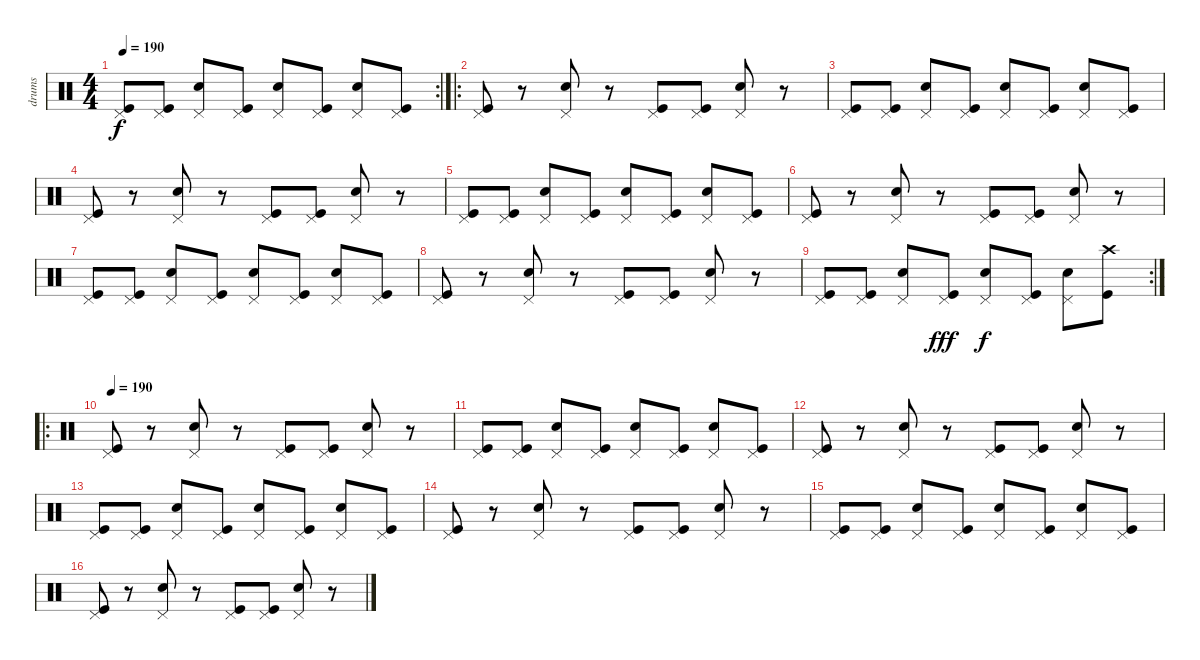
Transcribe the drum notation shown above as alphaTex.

\track ("drums" "drums") {instrument percussion}
\staff {score}
\articulation defaults
\rc 2
\ts (4 4)
\tempo 190
\clef neutral
\ks c
("Pedal Hi-Hat (hit)" "Kick (hit)").8{dy f} ("Pedal Hi-Hat (hit)" "Kick (hit)").8 ("Pedal Hi-Hat (hit)" "Snare (hit) 2").8 ("Pedal Hi-Hat (hit)" "Kick (hit)").8 ("Pedal Hi-Hat (hit)" "Snare (hit) 2").8 ("Pedal Hi-Hat (hit)" "Kick (hit)").8 ("Pedal Hi-Hat (hit)" "Snare (hit) 2").8 ("Pedal Hi-Hat (hit)" "Kick (hit)").8 |
\ro
("Pedal Hi-Hat (hit)" "Kick (hit)").8 r.8 ("Pedal Hi-Hat (hit)" "Snare (hit) 2").8 r.8 ("Pedal Hi-Hat (hit)" "Kick (hit)").8 ("Pedal Hi-Hat (hit)" "Kick (hit)").8 ("Pedal Hi-Hat (hit)" "Snare (hit) 2").8 r.8 |
("Pedal Hi-Hat (hit)" "Kick (hit)").8 ("Pedal Hi-Hat (hit)" "Kick (hit)").8 ("Pedal Hi-Hat (hit)" "Snare (hit) 2").8 ("Pedal Hi-Hat (hit)" "Kick (hit)").8 ("Pedal Hi-Hat (hit)" "Snare (hit) 2").8 ("Pedal Hi-Hat (hit)" "Kick (hit)").8 ("Pedal Hi-Hat (hit)" "Snare (hit) 2").8 ("Pedal Hi-Hat (hit)" "Kick (hit)").8 |
("Pedal Hi-Hat (hit)" "Kick (hit)").8 r.8 ("Pedal Hi-Hat (hit)" "Snare (hit) 2").8 r.8 ("Pedal Hi-Hat (hit)" "Kick (hit)").8 ("Pedal Hi-Hat (hit)" "Kick (hit)").8 ("Pedal Hi-Hat (hit)" "Snare (hit) 2").8 r.8 |
("Pedal Hi-Hat (hit)" "Kick (hit)").8 ("Pedal Hi-Hat (hit)" "Kick (hit)").8 ("Pedal Hi-Hat (hit)" "Snare (hit) 2").8 ("Pedal Hi-Hat (hit)" "Kick (hit)").8 ("Pedal Hi-Hat (hit)" "Snare (hit) 2").8 ("Pedal Hi-Hat (hit)" "Kick (hit)").8 ("Pedal Hi-Hat (hit)" "Snare (hit) 2").8 ("Pedal Hi-Hat (hit)" "Kick (hit)").8 |
("Pedal Hi-Hat (hit)" "Kick (hit)").8 r.8 ("Pedal Hi-Hat (hit)" "Snare (hit) 2").8 r.8 ("Pedal Hi-Hat (hit)" "Kick (hit)").8 ("Pedal Hi-Hat (hit)" "Kick (hit)").8 ("Pedal Hi-Hat (hit)" "Snare (hit) 2").8 r.8 |
("Pedal Hi-Hat (hit)" "Kick (hit)").8 ("Pedal Hi-Hat (hit)" "Kick (hit)").8 ("Pedal Hi-Hat (hit)" "Snare (hit) 2").8 ("Pedal Hi-Hat (hit)" "Kick (hit)").8 ("Pedal Hi-Hat (hit)" "Snare (hit) 2").8 ("Pedal Hi-Hat (hit)" "Kick (hit)").8 ("Pedal Hi-Hat (hit)" "Snare (hit) 2").8 ("Pedal Hi-Hat (hit)" "Kick (hit)").8 |
("Pedal Hi-Hat (hit)" "Kick (hit)").8 r.8 ("Pedal Hi-Hat (hit)" "Snare (hit) 2").8 r.8 ("Pedal Hi-Hat (hit)" "Kick (hit)").8 ("Pedal Hi-Hat (hit)" "Kick (hit)").8 ("Pedal Hi-Hat (hit)" "Snare (hit) 2").8 r.8 |
\rc 2
("Pedal Hi-Hat (hit)" "Kick (hit)").8 ("Pedal Hi-Hat (hit)" "Kick (hit)").8 ("Pedal Hi-Hat (hit)" "Snare (hit) 2").8 ("Pedal Hi-Hat (hit)" "Kick (hit)").8{dy fff} ("Pedal Hi-Hat (hit)" "Snare (hit) 2").8{dy f} ("Pedal Hi-Hat (hit)" "Kick (hit)").8 ("Pedal Hi-Hat (hit)" "Snare (hit) 2").8 ("Crash high (hit)" "Kick (hit)").8 |
\ro
\tempo 190
("Pedal Hi-Hat (hit)" "Kick (hit)").8 r.8 ("Pedal Hi-Hat (hit)" "Snare (hit) 2").8 r.8 ("Pedal Hi-Hat (hit)" "Kick (hit)").8 ("Pedal Hi-Hat (hit)" "Kick (hit)").8 ("Pedal Hi-Hat (hit)" "Snare (hit) 2").8 r.8 |
("Pedal Hi-Hat (hit)" "Kick (hit)").8 ("Pedal Hi-Hat (hit)" "Kick (hit)").8 ("Pedal Hi-Hat (hit)" "Snare (hit) 2").8 ("Pedal Hi-Hat (hit)" "Kick (hit)").8 ("Pedal Hi-Hat (hit)" "Snare (hit) 2").8 ("Pedal Hi-Hat (hit)" "Kick (hit)").8 ("Pedal Hi-Hat (hit)" "Snare (hit) 2").8 ("Pedal Hi-Hat (hit)" "Kick (hit)").8 |
("Pedal Hi-Hat (hit)" "Kick (hit)").8 r.8 ("Pedal Hi-Hat (hit)" "Snare (hit) 2").8 r.8 ("Pedal Hi-Hat (hit)" "Kick (hit)").8 ("Pedal Hi-Hat (hit)" "Kick (hit)").8 ("Pedal Hi-Hat (hit)" "Snare (hit) 2").8 r.8 |
("Pedal Hi-Hat (hit)" "Kick (hit)").8 ("Pedal Hi-Hat (hit)" "Kick (hit)").8 ("Pedal Hi-Hat (hit)" "Snare (hit) 2").8 ("Pedal Hi-Hat (hit)" "Kick (hit)").8 ("Pedal Hi-Hat (hit)" "Snare (hit) 2").8 ("Pedal Hi-Hat (hit)" "Kick (hit)").8 ("Pedal Hi-Hat (hit)" "Snare (hit) 2").8 ("Pedal Hi-Hat (hit)" "Kick (hit)").8 |
("Pedal Hi-Hat (hit)" "Kick (hit)").8 r.8 ("Pedal Hi-Hat (hit)" "Snare (hit) 2").8 r.8 ("Pedal Hi-Hat (hit)" "Kick (hit)").8 ("Pedal Hi-Hat (hit)" "Kick (hit)").8 ("Pedal Hi-Hat (hit)" "Snare (hit) 2").8 r.8 |
("Pedal Hi-Hat (hit)" "Kick (hit)").8 ("Pedal Hi-Hat (hit)" "Kick (hit)").8 ("Pedal Hi-Hat (hit)" "Snare (hit) 2").8 ("Pedal Hi-Hat (hit)" "Kick (hit)").8 ("Pedal Hi-Hat (hit)" "Snare (hit) 2").8 ("Pedal Hi-Hat (hit)" "Kick (hit)").8 ("Pedal Hi-Hat (hit)" "Snare (hit) 2").8 ("Pedal Hi-Hat (hit)" "Kick (hit)").8 |
("Pedal Hi-Hat (hit)" "Kick (hit)").8 r.8 ("Pedal Hi-Hat (hit)" "Snare (hit) 2").8 r.8 ("Pedal Hi-Hat (hit)" "Kick (hit)").8 ("Pedal Hi-Hat (hit)" "Kick (hit)").8 ("Pedal Hi-Hat (hit)" "Snare (hit) 2").8 r.8
